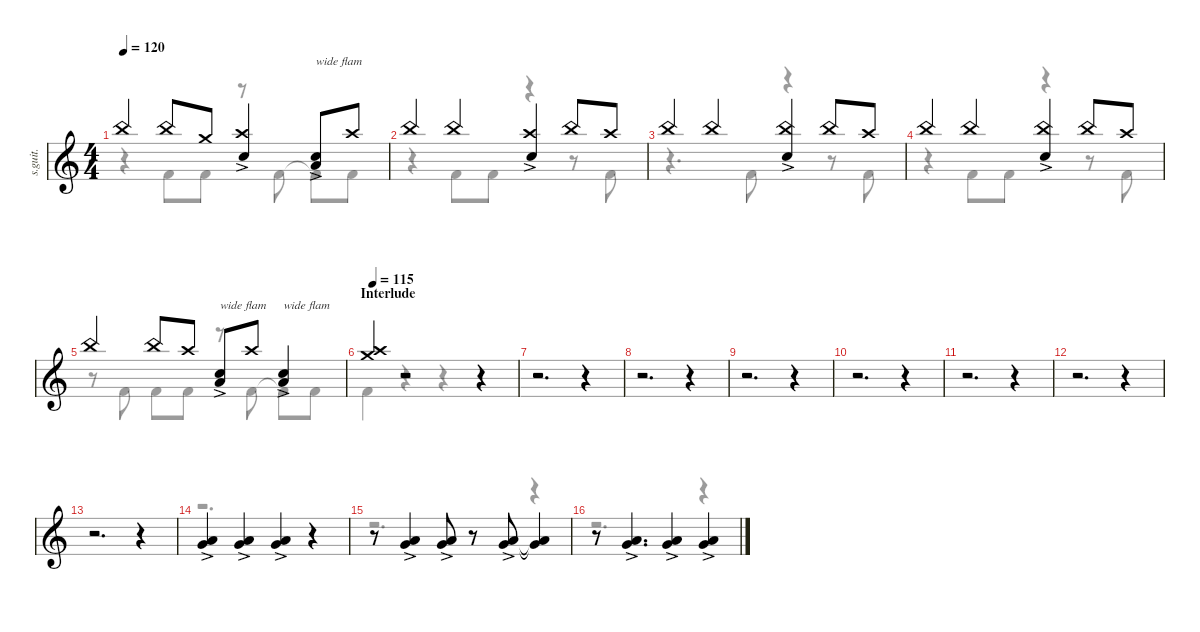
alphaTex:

\defaultSystemsLayout 4
\hideDynamics
\bracketExtendMode nobrackets
\track ("Percussion" "s.guit.") {instrument percussion}
\staff {score}
\articulation defaults
\voice
\ts (4 4)
\tempo 120
\clef g2
\ks c "China (hit)".4{lyrics (0 "") lyrics (1 "") lyrics (2 "") lyrics (3 "") lyrics (4 "") dy f} "China (hit)".8{lyrics (0 "") lyrics (1 "") lyrics (2 "") lyrics (3 "") lyrics (4 "")} "Crash medium (hit)".8{lyrics (0 "") lyrics (1 "") lyrics (2 "") lyrics (3 "") lyrics (4 "")}
("Crash high (hit)" "Snare (hit) 2"{ac}).4{lyrics (0 "") lyrics (1 "") lyrics (2 "") lyrics (3 "") lyrics (4 "")} ("Snare (hit) 2"{ac} "Low Tom (hit)"{ac}).8{txt "wide flam" lyrics (0 "") lyrics (1 "") lyrics (2 "") lyrics (3 "") lyrics (4 "") dy mf} "Crash high (hit)".8{lyrics (0 "") lyrics (1 "") lyrics (2 "") lyrics (3 "") lyrics (4 "") dy f} |
"China (hit)".4{lyrics (0 "") lyrics (1 "") lyrics (2 "") lyrics (3 "") lyrics (4 "")} "China (hit)".4{lyrics (0 "") lyrics (1 "") lyrics (2 "") lyrics (3 "") lyrics (4 "")} ("Crash high (hit)" "Snare (hit) 2"{ac}).4{lyrics (0 "") lyrics (1 "") lyrics (2 "") lyrics (3 "") lyrics (4 "")} "China (hit)".8{lyrics (0 "") lyrics (1 "") lyrics (2 "") lyrics (3 "") lyrics (4 "")} "Crash high (hit)".8{lyrics (0 "") lyrics (1 "") lyrics (2 "") lyrics (3 "") lyrics (4 "")} |
"China (hit)".4{lyrics (0 "") lyrics (1 "") lyrics (2 "") lyrics (3 "") lyrics (4 "")} "China (hit)".4{lyrics (0 "") lyrics (1 "") lyrics (2 "") lyrics (3 "") lyrics (4 "")} ("Snare (hit) 2"{ac} "China (hit)").4{lyrics (0 "") lyrics (1 "") lyrics (2 "") lyrics (3 "") lyrics (4 "")} "China (hit)".8{lyrics (0 "") lyrics (1 "") lyrics (2 "") lyrics (3 "") lyrics (4 "")} "Crash high (hit)".8{lyrics (0 "") lyrics (1 "") lyrics (2 "") lyrics (3 "") lyrics (4 "")} |
"China (hit)".4{lyrics (0 "") lyrics (1 "") lyrics (2 "") lyrics (3 "") lyrics (4 "")} "China (hit)".4{lyrics (0 "") lyrics (1 "") lyrics (2 "") lyrics (3 "") lyrics (4 "")} ("Snare (hit) 2"{ac} "China (hit)").4{lyrics (0 "") lyrics (1 "") lyrics (2 "") lyrics (3 "") lyrics (4 "")} "China (hit)".8{lyrics (0 "") lyrics (1 "") lyrics (2 "") lyrics (3 "") lyrics (4 "")} "Crash high (hit)".8{lyrics (0 "") lyrics (1 "") lyrics (2 "") lyrics (3 "") lyrics (4 "")} |
"China (hit)".4{lyrics (0 "") lyrics (1 "") lyrics (2 "") lyrics (3 "") lyrics (4 "")} "China (hit)".8{lyrics (0 "") lyrics (1 "") lyrics (2 "") lyrics (3 "") lyrics (4 "")} "Crash high (hit)".8{lyrics (0 "") lyrics (1 "") lyrics (2 "") lyrics (3 "") lyrics (4 "")} ("Snare (hit) 2"{ac} "Low Tom (hit)"{ac}).8{txt "wide flam" lyrics (0 "") lyrics (1 "") lyrics (2 "") lyrics (3 "") lyrics (4 "") dy mf} "Crash high (hit)".8{lyrics (0 "") lyrics (1 "") lyrics (2 "") lyrics (3 "") lyrics (4 "") dy f} ("Snare (hit) 2"{ac} "Low Tom (hit)"{ac}).4{txt "wide flam" lyrics (0 "") lyrics (1 "") lyrics (2 "") lyrics (3 "") lyrics (4 "") dy mf} |
\section ("" "Interlude")
\tempo 115
("Crash high (hit)" "Crash medium (hit)").4{lyrics (0 "") lyrics (1 "") lyrics (2 "") lyrics (3 "") lyrics (4 "") dy f} r.2 r.4 |
r.2{d} r.4 |
r.2{d} r.4 |
r.2{d} r.4 |
r.2{d} r.4 |
r.2{d} r.4 |
r.2{d} r.4 |
r.2{d} r.4 |
("Low Tom (hit)"{ac} "Very Low Tom (hit)"{ac}).4{lyrics (0 "") lyrics (1 "") lyrics (2 "") lyrics (3 "") lyrics (4 "") dy mf} ("Very Low Tom (hit)"{ac} "Low Tom (hit)"{ac}).4{lyrics (0 "") lyrics (1 "") lyrics (2 "") lyrics (3 "") lyrics (4 "")} ("Low Tom (hit)"{ac} "Very Low Tom (hit)"{ac}).4{lyrics (0 "") lyrics (1 "") lyrics (2 "") lyrics (3 "") lyrics (4 "")} r.4 |
r.8 ("Very Low Tom (hit)"{ac} "Low Tom (hit)"{ac}).4{lyrics (0 "") lyrics (1 "") lyrics (2 "") lyrics (3 "") lyrics (4 "")} ("Very Low Tom (hit)"{ac} "Low Tom (hit)"{ac}).8{lyrics (0 "") lyrics (1 "") lyrics (2 "") lyrics (3 "") lyrics (4 "")} r.8 ("Very Low Tom (hit)"{ac} "Low Tom (hit)"{ac}).8{lyrics (0 "") lyrics (1 "") lyrics (2 "") lyrics (3 "") lyrics (4 "")} ("Very Low Tom (hit)"{t} "Low Tom (hit)"{t}).4{lyrics (0 "") lyrics (1 "") lyrics (2 "") lyrics (3 "") lyrics (4 "") dy f} |
r.8 ("Very Low Tom (hit)"{ac} "Low Tom (hit)"{ac}).4{d lyrics (0 "") lyrics (1 "") lyrics (2 "") lyrics (3 "") lyrics (4 "") dy mf} ("Low Tom (hit)"{ac} "Very Low Tom (hit)"{ac}).4{lyrics (0 "") lyrics (1 "") lyrics (2 "") lyrics (3 "") lyrics (4 "")} ("Very Low Tom (hit)"{ac} "Low Tom (hit)"{ac}).4{lyrics (0 "") lyrics (1 "") lyrics (2 "") lyrics (3 "") lyrics (4 "")}
\voice
\clef g2
\ottava regular
\simile none
\ks c
r.4{dy f} "Kick (hit) 2".8{lyrics (0 "") lyrics (1 "") lyrics (2 "") lyrics (3 "") lyrics (4 "")} "Kick (hit) 2".8{lyrics (0 "") lyrics (1 "") lyrics (2 "") lyrics (3 "") lyrics (4 "")} r.8 "Kick (hit) 2".8{lyrics (0 "") lyrics (1 "") lyrics (2 "") lyrics (3 "") lyrics (4 "")} "Kick (hit) 2"{t}.8{lyrics (0 "") lyrics (1 "") lyrics (2 "") lyrics (3 "") lyrics (4 "")} "Kick (hit) 2".8{lyrics (0 "") lyrics (1 "") lyrics (2 "") lyrics (3 "") lyrics (4 "")} |
r.4 "Kick (hit) 2".8{lyrics (0 "") lyrics (1 "") lyrics (2 "") lyrics (3 "") lyrics (4 "")} "Kick (hit) 2".8{lyrics (0 "") lyrics (1 "") lyrics (2 "") lyrics (3 "") lyrics (4 "")} r.4 r.8 "Kick (hit) 2".8{lyrics (0 "") lyrics (1 "") lyrics (2 "") lyrics (3 "") lyrics (4 "")} |
r.4{d} "Kick (hit) 2".8{lyrics (0 "") lyrics (1 "") lyrics (2 "") lyrics (3 "") lyrics (4 "")} r.4 r.8 "Kick (hit) 2".8{lyrics (0 "") lyrics (1 "") lyrics (2 "") lyrics (3 "") lyrics (4 "")} |
r.4 "Kick (hit) 2".8{lyrics (0 "") lyrics (1 "") lyrics (2 "") lyrics (3 "") lyrics (4 "")} "Kick (hit) 2".8{lyrics (0 "") lyrics (1 "") lyrics (2 "") lyrics (3 "") lyrics (4 "")} r.4 r.8 "Kick (hit) 2".8{lyrics (0 "") lyrics (1 "") lyrics (2 "") lyrics (3 "") lyrics (4 "")} |
r.8 "Kick (hit) 2".8{lyrics (0 "") lyrics (1 "") lyrics (2 "") lyrics (3 "") lyrics (4 "")} "Kick (hit) 2".8{lyrics (0 "") lyrics (1 "") lyrics (2 "") lyrics (3 "") lyrics (4 "")} "Kick (hit) 2".8{lyrics (0 "") lyrics (1 "") lyrics (2 "") lyrics (3 "") lyrics (4 "")} r.8 "Kick (hit) 2".8{lyrics (0 "") lyrics (1 "") lyrics (2 "") lyrics (3 "") lyrics (4 "")} "Kick (hit) 2"{t}.8{lyrics (0 "") lyrics (1 "") lyrics (2 "") lyrics (3 "") lyrics (4 "")} "Kick (hit) 2".8{lyrics (0 "") lyrics (1 "") lyrics (2 "") lyrics (3 "") lyrics (4 "")} |
"Kick (hit) 2".4{lyrics (0 "") lyrics (1 "") lyrics (2 "") lyrics (3 "") lyrics (4 "")} r.4 r.4 r.4 |
r.2{d} r.4 |
r.2{d} r.4 |
r.2{d} r.4 |
r.2{d} r.4 |
r.2{d} r.4 |
r.2{d} r.4 |
r.2{d} r.4 |
r.2{d} r.4 |
r.2{d} r.4 |
r.2{d} r.4
